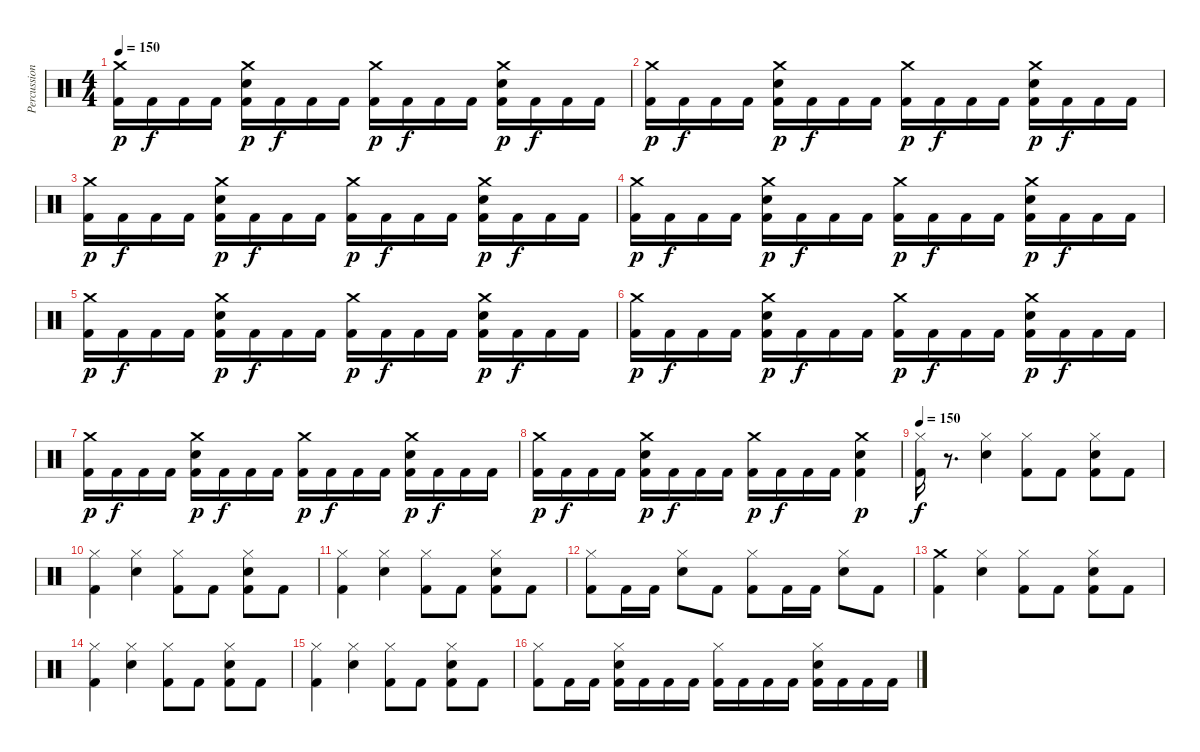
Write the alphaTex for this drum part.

\track ("Percussion" "Percussion") {instrument percussion}
\staff {score}
\articulation defaults
\ts (4 4)
\tempo 150
\clef neutral
\ks c
("Crash medium (hit)" "Kick (hit) 2").16{dy p} "Kick (hit) 2".16{dy f} "Kick (hit) 2".16 "Kick (hit) 2".16 ("Crash medium (hit)" "Electric Snare (hit)" "Kick (hit) 2").16{dy p} "Kick (hit) 2".16{dy f} "Kick (hit) 2".16 "Kick (hit) 2".16 ("Crash medium (hit)" "Kick (hit) 2").16{dy p} "Kick (hit) 2".16{dy f} "Kick (hit) 2".16 "Kick (hit) 2".16 ("Crash medium (hit)" "Electric Snare (hit)" "Kick (hit) 2").16{dy p} "Kick (hit) 2".16{dy f} "Kick (hit) 2".16 "Kick (hit) 2".16 |
("Crash medium (hit)" "Kick (hit) 2").16{dy p} "Kick (hit) 2".16{dy f} "Kick (hit) 2".16 "Kick (hit) 2".16 ("Crash medium (hit)" "Electric Snare (hit)" "Kick (hit) 2").16{dy p} "Kick (hit) 2".16{dy f} "Kick (hit) 2".16 "Kick (hit) 2".16 ("Crash medium (hit)" "Kick (hit) 2").16{dy p} "Kick (hit) 2".16{dy f} "Kick (hit) 2".16 "Kick (hit) 2".16 ("Crash medium (hit)" "Electric Snare (hit)" "Kick (hit) 2").16{dy p} "Kick (hit) 2".16{dy f} "Kick (hit) 2".16 "Kick (hit) 2".16 |
("Crash medium (hit)" "Kick (hit) 2").16{dy p} "Kick (hit) 2".16{dy f} "Kick (hit) 2".16 "Kick (hit) 2".16 ("Crash medium (hit)" "Electric Snare (hit)" "Kick (hit) 2").16{dy p} "Kick (hit) 2".16{dy f} "Kick (hit) 2".16 "Kick (hit) 2".16 ("Crash medium (hit)" "Kick (hit) 2").16{dy p} "Kick (hit) 2".16{dy f} "Kick (hit) 2".16 "Kick (hit) 2".16 ("Crash medium (hit)" "Electric Snare (hit)" "Kick (hit) 2").16{dy p} "Kick (hit) 2".16{dy f} "Kick (hit) 2".16 "Kick (hit) 2".16 |
("Crash medium (hit)" "Kick (hit) 2").16{dy p} "Kick (hit) 2".16{dy f} "Kick (hit) 2".16 "Kick (hit) 2".16 ("Crash medium (hit)" "Electric Snare (hit)" "Kick (hit) 2").16{dy p} "Kick (hit) 2".16{dy f} "Kick (hit) 2".16 "Kick (hit) 2".16 ("Crash medium (hit)" "Kick (hit) 2").16{dy p} "Kick (hit) 2".16{dy f} "Kick (hit) 2".16 "Kick (hit) 2".16 ("Crash medium (hit)" "Electric Snare (hit)" "Kick (hit) 2").16{dy p} "Kick (hit) 2".16{dy f} "Kick (hit) 2".16 "Kick (hit) 2".16 |
("Crash medium (hit)" "Kick (hit) 2").16{dy p} "Kick (hit) 2".16{dy f} "Kick (hit) 2".16 "Kick (hit) 2".16 ("Crash medium (hit)" "Electric Snare (hit)" "Kick (hit) 2").16{dy p} "Kick (hit) 2".16{dy f} "Kick (hit) 2".16 "Kick (hit) 2".16 ("Crash medium (hit)" "Kick (hit) 2").16{dy p} "Kick (hit) 2".16{dy f} "Kick (hit) 2".16 "Kick (hit) 2".16 ("Crash medium (hit)" "Electric Snare (hit)" "Kick (hit) 2").16{dy p} "Kick (hit) 2".16{dy f} "Kick (hit) 2".16 "Kick (hit) 2".16 |
("Crash medium (hit)" "Kick (hit) 2").16{dy p} "Kick (hit) 2".16{dy f} "Kick (hit) 2".16 "Kick (hit) 2".16 ("Crash medium (hit)" "Electric Snare (hit)" "Kick (hit) 2").16{dy p} "Kick (hit) 2".16{dy f} "Kick (hit) 2".16 "Kick (hit) 2".16 ("Crash medium (hit)" "Kick (hit) 2").16{dy p} "Kick (hit) 2".16{dy f} "Kick (hit) 2".16 "Kick (hit) 2".16 ("Crash medium (hit)" "Electric Snare (hit)" "Kick (hit) 2").16{dy p} "Kick (hit) 2".16{dy f} "Kick (hit) 2".16 "Kick (hit) 2".16 |
("Crash medium (hit)" "Kick (hit) 2").16{dy p} "Kick (hit) 2".16{dy f} "Kick (hit) 2".16 "Kick (hit) 2".16 ("Crash medium (hit)" "Electric Snare (hit)" "Kick (hit) 2").16{dy p} "Kick (hit) 2".16{dy f} "Kick (hit) 2".16 "Kick (hit) 2".16 ("Crash medium (hit)" "Kick (hit) 2").16{dy p} "Kick (hit) 2".16{dy f} "Kick (hit) 2".16 "Kick (hit) 2".16 ("Crash medium (hit)" "Electric Snare (hit)" "Kick (hit) 2").16{dy p} "Kick (hit) 2".16{dy f} "Kick (hit) 2".16 "Kick (hit) 2".16 |
("Crash medium (hit)" "Kick (hit) 2").16{dy p} "Kick (hit) 2".16{dy f} "Kick (hit) 2".16 "Kick (hit) 2".16 ("Crash medium (hit)" "Electric Snare (hit)" "Kick (hit) 2").16{dy p} "Kick (hit) 2".16{dy f} "Kick (hit) 2".16 "Kick (hit) 2".16 ("Crash medium (hit)" "Kick (hit) 2").16{dy p} "Kick (hit) 2".16{dy f} "Kick (hit) 2".16 "Kick (hit) 2".16 ("Crash medium (hit)" "Electric Snare (hit)" "Kick (hit) 2").4{dy p} |
\tempo 150
("Hi-Hat (closed)" "Kick (hit) 2").16{dy f} r.8{d} ("Electric Snare (hit)" "Hi-Hat (closed)").4 ("Hi-Hat (closed)" "Kick (hit) 2").8 "Kick (hit) 2".8 ("Electric Snare (hit)" "Hi-Hat (closed)" "Kick (hit) 2").8 "Kick (hit) 2".8 |
("Hi-Hat (closed)" "Kick (hit) 2").4 ("Electric Snare (hit)" "Hi-Hat (closed)").4 ("Hi-Hat (closed)" "Kick (hit) 2").8 "Kick (hit) 2".8 ("Electric Snare (hit)" "Hi-Hat (closed)" "Kick (hit) 2").8 "Kick (hit) 2".8 |
("Hi-Hat (closed)" "Kick (hit) 2").4 ("Electric Snare (hit)" "Hi-Hat (closed)").4 ("Hi-Hat (closed)" "Kick (hit) 2").8 "Kick (hit) 2".8 ("Electric Snare (hit)" "Hi-Hat (closed)" "Kick (hit) 2").8 "Kick (hit) 2".8 |
("Hi-Hat (closed)" "Kick (hit) 2").8 "Kick (hit) 2".16 "Kick (hit) 2".16 ("Electric Snare (hit)" "Hi-Hat (closed)").8 "Kick (hit) 2".8 ("Hi-Hat (closed)" "Kick (hit) 2").8 "Kick (hit) 2".16 "Kick (hit) 2".16 ("Electric Snare (hit)" "Hi-Hat (closed)").8 "Kick (hit) 2".8 |
("Crash medium (hit)" "Kick (hit) 2").4 ("Electric Snare (hit)" "Hi-Hat (closed)").4 ("Hi-Hat (closed)" "Kick (hit) 2").8 "Kick (hit) 2".8 ("Electric Snare (hit)" "Hi-Hat (closed)" "Kick (hit) 2").8 "Kick (hit) 2".8 |
("Hi-Hat (closed)" "Kick (hit) 2").4 ("Electric Snare (hit)" "Hi-Hat (closed)").4 ("Hi-Hat (closed)" "Kick (hit) 2").8 "Kick (hit) 2".8 ("Electric Snare (hit)" "Hi-Hat (closed)" "Kick (hit) 2").8 "Kick (hit) 2".8 |
("Hi-Hat (closed)" "Kick (hit) 2").4 ("Electric Snare (hit)" "Hi-Hat (closed)").4 ("Hi-Hat (closed)" "Kick (hit) 2").8 "Kick (hit) 2".8 ("Electric Snare (hit)" "Hi-Hat (closed)" "Kick (hit) 2").8 "Kick (hit) 2".8 |
("Hi-Hat (closed)" "Kick (hit) 2").8 "Kick (hit) 2".16 "Kick (hit) 2".16 ("Electric Snare (hit)" "Hi-Hat (closed)" "Kick (hit) 2").16 "Kick (hit) 2".16 "Kick (hit) 2".16 "Kick (hit) 2".16 ("Hi-Hat (closed)" "Kick (hit) 2").16 "Kick (hit) 2".16 "Kick (hit) 2".16 "Kick (hit) 2".16 ("Electric Snare (hit)" "Hi-Hat (closed)" "Kick (hit) 2").16 "Kick (hit) 2".16 "Kick (hit) 2".16 "Kick (hit) 2".16
